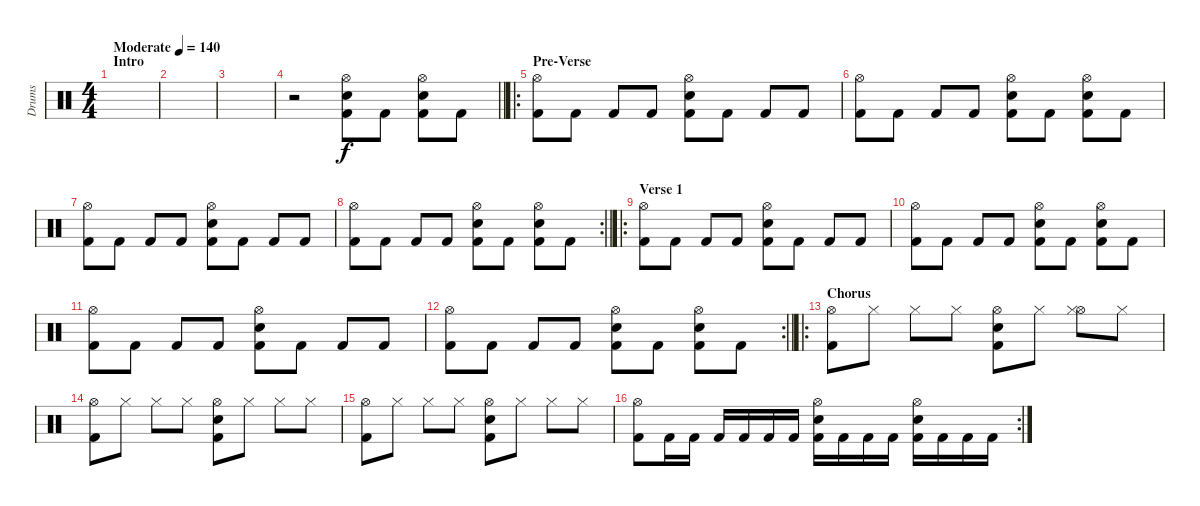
\track ("Drums" "Drums") {instrument percussion}
\staff {score}
\articulation defaults
\ts (4 4)
\section ("" "Intro")
\tempo (140 "Moderate")
\clef neutral
\ks c
|
|
|
\barLineRight lightlight
r.2 ("Hi-Hat (open)" "Snare (hit) 2" "Kick (hit) 2").8 "Kick (hit) 2".8 ("Hi-Hat (open)" "Snare (hit) 2" "Kick (hit) 2").8 "Kick (hit) 2".8 |
\ro
\section ("" "Pre-Verse")
("Hi-Hat (open)" "Kick (hit) 2").8 "Kick (hit) 2".8 "Kick (hit) 2".8 "Kick (hit) 2".8 ("Hi-Hat (open)" "Snare (hit) 2" "Kick (hit) 2").8 "Kick (hit) 2".8 "Kick (hit) 2".8 "Kick (hit) 2".8 |
("Hi-Hat (open)" "Kick (hit) 2").8 "Kick (hit) 2".8 "Kick (hit) 2".8 "Kick (hit) 2".8 ("Hi-Hat (open)" "Snare (hit) 2" "Kick (hit) 2").8 "Kick (hit) 2".8 ("Hi-Hat (open)" "Snare (hit) 2" "Kick (hit) 2").8 "Kick (hit) 2".8 |
("Hi-Hat (open)" "Kick (hit) 2").8 "Kick (hit) 2".8 "Kick (hit) 2".8 "Kick (hit) 2".8 ("Hi-Hat (open)" "Snare (hit) 2" "Kick (hit) 2").8 "Kick (hit) 2".8 "Kick (hit) 2".8 "Kick (hit) 2".8 |
\rc 2
\barLineRight lightlight
("Hi-Hat (open)" "Kick (hit) 2").8 "Kick (hit) 2".8 "Kick (hit) 2".8 "Kick (hit) 2".8 ("Hi-Hat (open)" "Snare (hit) 2" "Kick (hit) 2").8 "Kick (hit) 2".8 ("Hi-Hat (open)" "Snare (hit) 2" "Kick (hit) 2").8 "Kick (hit) 2".8 |
\ro
\section ("" "Verse 1")
("Hi-Hat (open)" "Kick (hit) 2").8 "Kick (hit) 2".8 "Kick (hit) 2".8 "Kick (hit) 2".8 ("Hi-Hat (open)" "Snare (hit) 2" "Kick (hit) 2").8 "Kick (hit) 2".8 "Kick (hit) 2".8 "Kick (hit) 2".8 |
("Hi-Hat (open)" "Kick (hit) 2").8 "Kick (hit) 2".8 "Kick (hit) 2".8 "Kick (hit) 2".8 ("Hi-Hat (open)" "Snare (hit) 2" "Kick (hit) 2").8 "Kick (hit) 2".8 ("Hi-Hat (open)" "Snare (hit) 2" "Kick (hit) 2").8 "Kick (hit) 2".8 |
("Hi-Hat (open)" "Kick (hit) 2").8 "Kick (hit) 2".8 "Kick (hit) 2".8 "Kick (hit) 2".8 ("Hi-Hat (open)" "Snare (hit) 2" "Kick (hit) 2").8 "Kick (hit) 2".8 "Kick (hit) 2".8 "Kick (hit) 2".8 |
\rc 2
\barLineRight lightlight
("Hi-Hat (open)" "Kick (hit) 2").8 "Kick (hit) 2".8 "Kick (hit) 2".8 "Kick (hit) 2".8 ("Hi-Hat (open)" "Snare (hit) 2" "Kick (hit) 2").8 "Kick (hit) 2".8 ("Hi-Hat (open)" "Snare (hit) 2" "Kick (hit) 2").8 "Kick (hit) 2".8 |
\ro
\section ("" "Chorus")
("Hi-Hat (open)" "Kick (hit) 2").8 "Hi-Hat (closed)".8 "Hi-Hat (closed)".8 "Hi-Hat (closed)".8 ("Hi-Hat (open)" "Snare (hit) 2" "Kick (hit) 2").8 "Hi-Hat (closed)".8 ("Hi-Hat (open)" "Hi-Hat (closed)").8 "Hi-Hat (closed)".8 |
("Hi-Hat (open)" "Kick (hit) 2").8 "Hi-Hat (closed)".8 "Hi-Hat (closed)".8 "Hi-Hat (closed)".8 ("Hi-Hat (open)" "Snare (hit) 2" "Kick (hit) 2").8 "Hi-Hat (closed)".8 "Hi-Hat (closed)".8 "Hi-Hat (closed)".8 |
("Hi-Hat (open)" "Kick (hit) 2").8 "Hi-Hat (closed)".8 "Hi-Hat (closed)".8 "Hi-Hat (closed)".8 ("Hi-Hat (open)" "Snare (hit) 2" "Kick (hit) 2").8 "Hi-Hat (closed)".8 "Hi-Hat (closed)".8 "Hi-Hat (closed)".8 |
\rc 2
("Hi-Hat (open)" "Kick (hit) 2").8 "Kick (hit) 2".16 "Kick (hit) 2".16 "Kick (hit) 2".16 "Kick (hit) 2".16 "Kick (hit) 2".16 "Kick (hit) 2".16 ("Hi-Hat (open)" "Snare (hit) 2" "Kick (hit) 2").16 "Kick (hit) 2".16 "Kick (hit) 2".16 "Kick (hit) 2".16 ("Hi-Hat (open)" "Snare (hit) 2" "Kick (hit) 2").16 "Kick (hit) 2".16 "Kick (hit) 2".16 "Kick (hit) 2".16
